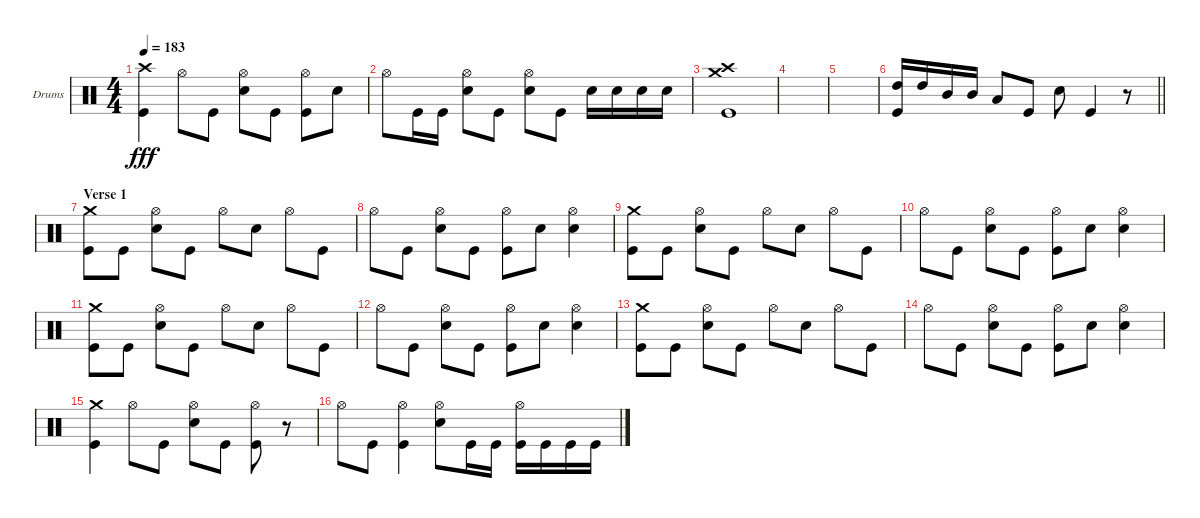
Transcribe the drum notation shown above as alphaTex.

\bracketExtendMode groupsimilarinstruments
\firstSystemTrackNameOrientation horizontal
\otherSystemsTrackNameOrientation horizontal
\track ("Drumkit" "Drums") {instrument percussion}
\staff {score}
\articulation defaults
\ts (4 4)
\tempo 183
\clef neutral
\scale
0.333333
\ks c
("Kick (hit)" "Crash high (hit)").4{dy fff} "Hi-Hat (open)".8 "Kick (hit)".8 ("Snare (hit) 2" "Hi-Hat (open)").8 "Kick (hit)".8 ("Kick (hit)" "Hi-Hat (open)").8 "Snare (hit) 2".8 |
\scale
0.333333 "Hi-Hat (open)".8 "Kick (hit)".16 "Kick (hit)".16 ("Snare (hit) 2" "Hi-Hat (open)").8 "Kick (hit)".8 ("Snare (hit) 2" "Hi-Hat (open)").8 "Kick (hit)".8 "Snare (hit) 2".16 "Snare (hit) 2".16 "Snare (hit) 2".16 "Snare (hit) 2".16 |
\scale
0.333333 ("Kick (hit)" "Crash medium (hit)" "Crash high (hit)").1 |
\scale
0.333333 |
\scale
0.333333 |
\scale
0.333333
\barLineRight lightlight
("High Tom (hit)" "Kick (hit)").16 "High Tom (hit)".16 "Mid Tom (hit)".16 "Mid Tom (hit)".16 "Low Tom (hit)".8 "Kick (hit)".8 "Snare (hit) 2".8 "Kick (hit)".4 r.8 |
\section ("" "Verse 1")
\scale
0.333333 ("Kick (hit)" "Crash medium (hit)").8 "Kick (hit)".8 ("Snare (hit) 2" "Hi-Hat (open)").8 "Kick (hit)".8 "Hi-Hat (open)".8 "Snare (hit) 2".8 "Hi-Hat (open)".8 "Kick (hit)".8 |
\scale
0.333333 "Hi-Hat (open)".8 "Kick (hit)".8 ("Snare (hit) 2" "Hi-Hat (open)").8 "Kick (hit)".8 ("Kick (hit)" "Hi-Hat (open)").8 "Snare (hit) 2".8 ("Snare (hit) 2" "Hi-Hat (open)").4 |
\scale
0.333333 ("Kick (hit)" "Crash medium (hit)").8 "Kick (hit)".8 ("Snare (hit) 2" "Hi-Hat (open)").8 "Kick (hit)".8 "Hi-Hat (open)".8 "Snare (hit) 2".8 "Hi-Hat (open)".8 "Kick (hit)".8 |
\scale
0.333333 "Hi-Hat (open)".8 "Kick (hit)".8 ("Snare (hit) 2" "Hi-Hat (open)").8 "Kick (hit)".8 ("Kick (hit)" "Hi-Hat (open)").8 "Snare (hit) 2".8 ("Snare (hit) 2" "Hi-Hat (open)").4 |
\scale
0.333333 ("Kick (hit)" "Crash medium (hit)").8 "Kick (hit)".8 ("Snare (hit) 2" "Hi-Hat (open)").8 "Kick (hit)".8 "Hi-Hat (open)".8 "Snare (hit) 2".8 "Hi-Hat (open)".8 "Kick (hit)".8 |
\scale
0.333333 "Hi-Hat (open)".8 "Kick (hit)".8 ("Snare (hit) 2" "Hi-Hat (open)").8 "Kick (hit)".8 ("Kick (hit)" "Hi-Hat (open)").8 "Snare (hit) 2".8 ("Snare (hit) 2" "Hi-Hat (open)").4 |
\scale
0.333333 ("Kick (hit)" "Crash medium (hit)").8 "Kick (hit)".8 ("Snare (hit) 2" "Hi-Hat (open)").8 "Kick (hit)".8 "Hi-Hat (open)".8 "Snare (hit) 2".8 "Hi-Hat (open)".8 "Kick (hit)".8 |
\scale
0.333333 "Hi-Hat (open)".8 "Kick (hit)".8 ("Snare (hit) 2" "Hi-Hat (open)").8 "Kick (hit)".8 ("Kick (hit)" "Hi-Hat (open)").8 "Snare (hit) 2".8 ("Snare (hit) 2" "Hi-Hat (open)").4 |
\scale
0.333333 ("Kick (hit)" "Crash medium (hit)").4 "Hi-Hat (open)".8 "Kick (hit)".8 ("Snare (hit) 2" "Hi-Hat (open)").8 "Kick (hit)".8 ("Kick (hit)" "Hi-Hat (open)").8 r.8 |
\scale
0.333333 "Hi-Hat (open)".8 "Kick (hit)".8 ("Kick (hit)" "Hi-Hat (open)").4 ("Snare (hit) 2" "Hi-Hat (open)").8 "Kick (hit)".16 "Kick (hit)".16 ("Kick (hit)" "Hi-Hat (open)").16 "Kick (hit)".16 "Kick (hit)".16 "Kick (hit)".16
